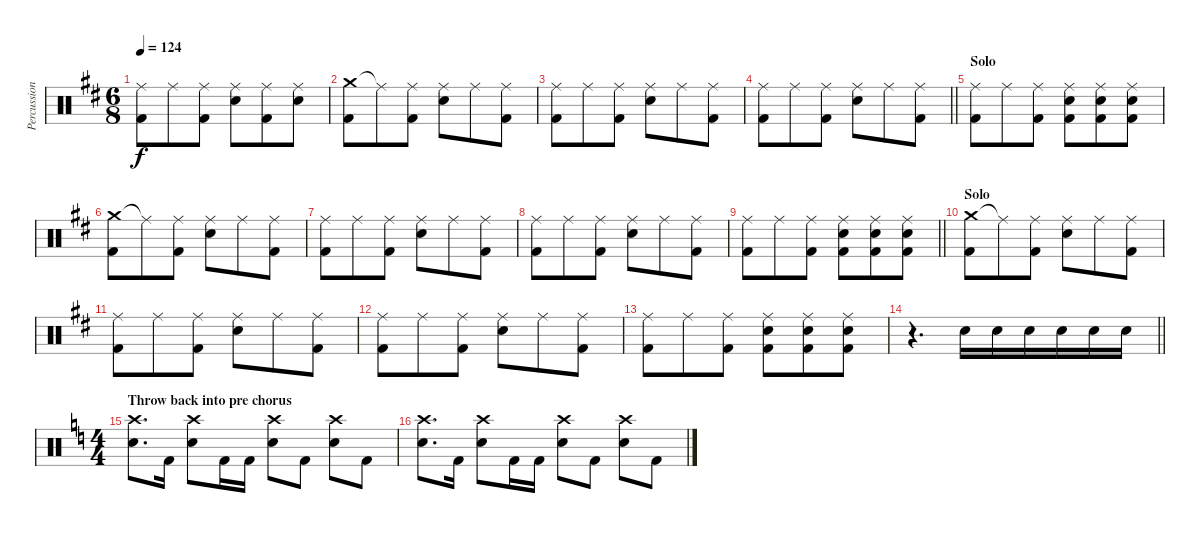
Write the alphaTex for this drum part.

\track ("Percussion" "Percussion") {instrument percussion}
\staff {score}
\articulation defaults
\ts (6 8)
\tempo 124
\clef neutral
\ks bminor
("Ride (middle)" "Kick (hit) 2").8{dy f} "Ride (middle)".8 ("Ride (middle)" "Kick (hit) 2").8 ("Ride (middle)" "Electric Snare (hit)").8 ("Ride (middle)" "Kick (hit) 2").8 ("Ride (middle)" "Electric Snare (hit)").8 |
("Crash medium (hit)" "Kick (hit) 2").8 "Ride (middle)"{t}.8 ("Ride (middle)" "Kick (hit) 2").8 ("Ride (middle)" "Electric Snare (hit)").8 "Ride (middle)".8 ("Ride (middle)" "Kick (hit) 2").8 |
("Ride (middle)" "Kick (hit) 2").8 "Ride (middle)".8 ("Ride (middle)" "Kick (hit) 2").8 ("Ride (middle)" "Electric Snare (hit)").8 "Ride (middle)".8 ("Ride (middle)" "Kick (hit) 2").8 |
\barLineRight lightlight
("Ride (middle)" "Kick (hit) 2").8 "Ride (middle)".8 ("Ride (middle)" "Kick (hit) 2").8 ("Ride (middle)" "Electric Snare (hit)").8 "Ride (middle)".8 ("Ride (middle)" "Kick (hit) 2").8 |
\section ("" "Solo")
("Ride (middle)" "Kick (hit) 2").8 "Ride (middle)".8 ("Ride (middle)" "Kick (hit) 2").8 ("Ride (middle)" "Electric Snare (hit)" "Kick (hit) 2").8 ("Ride (middle)" "Electric Snare (hit)" "Kick (hit) 2").8 ("Ride (middle)" "Electric Snare (hit)" "Kick (hit) 2").8 |
("Crash medium (hit)" "Kick (hit) 2").8 "Ride (middle)"{t}.8 ("Ride (middle)" "Kick (hit) 2").8 ("Ride (middle)" "Electric Snare (hit)").8 "Ride (middle)".8 ("Ride (middle)" "Kick (hit) 2").8 |
("Ride (middle)" "Kick (hit) 2").8 "Ride (middle)".8 ("Ride (middle)" "Kick (hit) 2").8 ("Ride (middle)" "Electric Snare (hit)").8 "Ride (middle)".8 ("Ride (middle)" "Kick (hit) 2").8 |
("Ride (middle)" "Kick (hit) 2").8 "Ride (middle)".8 ("Ride (middle)" "Kick (hit) 2").8 ("Ride (middle)" "Electric Snare (hit)").8 "Ride (middle)".8 ("Ride (middle)" "Kick (hit) 2").8 |
\barLineRight lightlight
("Ride (middle)" "Kick (hit) 2").8 "Ride (middle)".8 ("Ride (middle)" "Kick (hit) 2").8 ("Ride (middle)" "Electric Snare (hit)" "Kick (hit) 2").8 ("Ride (middle)" "Electric Snare (hit)" "Kick (hit) 2").8 ("Ride (middle)" "Electric Snare (hit)" "Kick (hit) 2").8 |
\section ("" "Solo")
("Crash medium (hit)" "Kick (hit) 2").8 "Ride (middle)"{t}.8 ("Ride (middle)" "Kick (hit) 2").8 ("Ride (middle)" "Electric Snare (hit)").8 "Ride (middle)".8 ("Ride (middle)" "Kick (hit) 2").8 |
("Ride (middle)" "Kick (hit) 2").8 "Ride (middle)".8 ("Ride (middle)" "Kick (hit) 2").8 ("Ride (middle)" "Electric Snare (hit)").8 "Ride (middle)".8 ("Ride (middle)" "Kick (hit) 2").8 |
("Ride (middle)" "Kick (hit) 2").8 "Ride (middle)".8 ("Ride (middle)" "Kick (hit) 2").8 ("Ride (middle)" "Electric Snare (hit)").8 "Ride (middle)".8 ("Ride (middle)" "Kick (hit) 2").8 |
("Ride (middle)" "Kick (hit) 2").8 "Ride (middle)".8 ("Ride (middle)" "Kick (hit) 2").8 ("Ride (middle)" "Electric Snare (hit)" "Kick (hit) 2").8 ("Ride (middle)" "Electric Snare (hit)" "Kick (hit) 2").8 ("Ride (middle)" "Electric Snare (hit)" "Kick (hit) 2").8 |
\barLineRight lightlight
r.4{d} "Electric Snare (hit)".16 "Electric Snare (hit)".16 "Electric Snare (hit)".16 "Electric Snare (hit)".16 "Electric Snare (hit)".16 "Electric Snare (hit)".16 |
\ts (4 4)
\section ("" "Throw back into pre chorus")
\ks c
("Crash high (hit)" "Electric Snare (hit)").8{d} "Kick (hit) 2".16 ("Crash high (hit)" "Electric Snare (hit)").8 "Kick (hit) 2".16 "Kick (hit) 2".16 ("Crash high (hit)" "Electric Snare (hit)").8 "Kick (hit) 2".8 ("Crash high (hit)" "Electric Snare (hit)").8 "Kick (hit) 2".8 |
("Crash high (hit)" "Electric Snare (hit)").8{d} "Kick (hit) 2".16 ("Crash high (hit)" "Electric Snare (hit)").8 "Kick (hit) 2".16 "Kick (hit) 2".16 ("Crash high (hit)" "Electric Snare (hit)").8 "Kick (hit) 2".8 ("Crash high (hit)" "Electric Snare (hit)").8 "Kick (hit) 2".8
